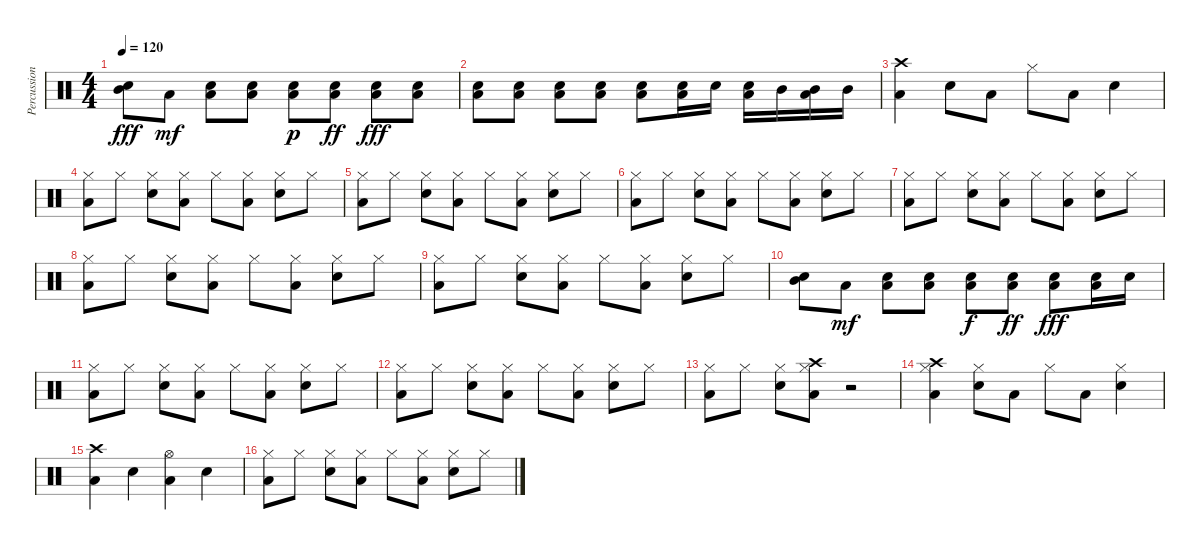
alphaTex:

\track ("Percussion" "Percussion") {instrument percussion}
\staff {score}
\articulation defaults
\ts (4 4)
\tempo 120
\clef neutral
\ks c
("Electric Snare (hit)" "Mid Tom (hit)").8{dy fff} "Low Tom (hit)".8{dy mf} ("Electric Snare (hit)" "Low Tom (hit)").8 ("Electric Snare (hit)" "Low Tom (hit)").8 ("Electric Snare (hit)" "Low Tom (hit)").8{dy p} ("Electric Snare (hit)" "Low Tom (hit)").8{dy ff} ("Electric Snare (hit)" "Low Tom (hit)").8{dy fff} ("Electric Snare (hit)" "Low Tom (hit)").8 |
("Electric Snare (hit)" "Low Tom (hit)").8 ("Electric Snare (hit)" "Low Tom (hit)").8 ("Electric Snare (hit)" "Low Tom (hit)").8 ("Electric Snare (hit)" "Low Tom (hit)").8 ("Electric Snare (hit)" "Low Tom (hit)").8 ("Electric Snare (hit)" "Low Tom (hit)").16 "Electric Snare (hit)".16 ("Electric Snare (hit)" "Low Tom (hit)").16 "Mid Tom (hit)".16 ("Mid Tom (hit)" "Low Tom (hit)").16 "Mid Tom (hit)".16 |
("Crash high (hit)" "Low Tom (hit)").4 "Electric Snare (hit)".8 "Low Tom (hit)".8 "Hi-Hat (closed)".8 "Low Tom (hit)".8 "Electric Snare (hit)".4 |
("Hi-Hat (closed)" "Low Tom (hit)").8 "Hi-Hat (closed)".8 ("Hi-Hat (closed)" "Electric Snare (hit)").8 ("Hi-Hat (closed)" "Low Tom (hit)").8 "Hi-Hat (closed)".8 ("Hi-Hat (closed)" "Low Tom (hit)").8 ("Hi-Hat (closed)" "Electric Snare (hit)").8 "Hi-Hat (closed)".8 |
("Hi-Hat (closed)" "Low Tom (hit)").8 "Hi-Hat (closed)".8 ("Hi-Hat (closed)" "Electric Snare (hit)").8 ("Hi-Hat (closed)" "Low Tom (hit)").8 "Hi-Hat (closed)".8 ("Hi-Hat (closed)" "Low Tom (hit)").8 ("Hi-Hat (closed)" "Electric Snare (hit)").8 "Hi-Hat (closed)".8 |
("Hi-Hat (closed)" "Low Tom (hit)").8 "Hi-Hat (closed)".8 ("Hi-Hat (closed)" "Electric Snare (hit)").8 ("Hi-Hat (closed)" "Low Tom (hit)").8 "Hi-Hat (closed)".8 ("Hi-Hat (closed)" "Low Tom (hit)").8 ("Hi-Hat (closed)" "Electric Snare (hit)").8 "Hi-Hat (closed)".8 |
("Hi-Hat (closed)" "Low Tom (hit)").8 "Hi-Hat (closed)".8 ("Hi-Hat (closed)" "Electric Snare (hit)").8 ("Hi-Hat (closed)" "Low Tom (hit)").8 "Hi-Hat (closed)".8 ("Hi-Hat (closed)" "Low Tom (hit)").8 ("Hi-Hat (closed)" "Electric Snare (hit)").8 "Hi-Hat (closed)".8 |
("Hi-Hat (closed)" "Low Tom (hit)").8 "Hi-Hat (closed)".8 ("Hi-Hat (closed)" "Electric Snare (hit)").8 ("Hi-Hat (closed)" "Low Tom (hit)").8 "Hi-Hat (closed)".8 ("Hi-Hat (closed)" "Low Tom (hit)").8 ("Hi-Hat (closed)" "Electric Snare (hit)").8 "Hi-Hat (closed)".8 |
("Hi-Hat (closed)" "Low Tom (hit)").8 "Hi-Hat (closed)".8 ("Hi-Hat (closed)" "Electric Snare (hit)").8 ("Hi-Hat (closed)" "Low Tom (hit)").8 "Hi-Hat (closed)".8 ("Hi-Hat (closed)" "Low Tom (hit)").8 ("Hi-Hat (closed)" "Electric Snare (hit)").8 "Hi-Hat (closed)".8 |
("Electric Snare (hit)" "Mid Tom (hit)").8 "Low Tom (hit)".8{dy mf} ("Electric Snare (hit)" "Low Tom (hit)").8 ("Electric Snare (hit)" "Low Tom (hit)").8 ("Electric Snare (hit)" "Low Tom (hit)").8{dy f} ("Electric Snare (hit)" "Low Tom (hit)").8{dy ff} ("Electric Snare (hit)" "Low Tom (hit)").8{dy fff} ("Electric Snare (hit)" "Low Tom (hit)").16 "Electric Snare (hit)".16 |
("Hi-Hat (closed)" "Low Tom (hit)").8 "Hi-Hat (closed)".8 ("Hi-Hat (closed)" "Electric Snare (hit)").8 ("Hi-Hat (closed)" "Low Tom (hit)").8 "Hi-Hat (closed)".8 ("Hi-Hat (closed)" "Low Tom (hit)").8 ("Hi-Hat (closed)" "Electric Snare (hit)").8 "Hi-Hat (closed)".8 |
("Hi-Hat (closed)" "Low Tom (hit)").8 "Hi-Hat (closed)".8 ("Hi-Hat (closed)" "Electric Snare (hit)").8 ("Hi-Hat (closed)" "Low Tom (hit)").8 "Hi-Hat (closed)".8 ("Hi-Hat (closed)" "Low Tom (hit)").8 ("Hi-Hat (closed)" "Electric Snare (hit)").8 "Hi-Hat (closed)".8 |
("Hi-Hat (closed)" "Low Tom (hit)").8 "Hi-Hat (closed)".8 ("Hi-Hat (closed)" "Electric Snare (hit)").8 ("Crash high (hit)" "Hi-Hat (closed)" "Low Tom (hit)").8 r.2 |
("Crash high (hit)" "Hi-Hat (closed)" "Low Tom (hit)").4 ("Hi-Hat (closed)" "Electric Snare (hit)").8 "Low Tom (hit)".8 "Hi-Hat (closed)".8 "Low Tom (hit)".8 ("Hi-Hat (closed)" "Electric Snare (hit)").4 |
("Crash high (hit)" "Low Tom (hit)").4 "Electric Snare (hit)".4 ("Hi-Hat (open)" "Low Tom (hit)").4 "Electric Snare (hit)".4 |
("Hi-Hat (closed)" "Low Tom (hit)").8 "Hi-Hat (closed)".8 ("Hi-Hat (closed)" "Electric Snare (hit)").8 ("Hi-Hat (closed)" "Low Tom (hit)").8 "Hi-Hat (closed)".8 ("Hi-Hat (closed)" "Low Tom (hit)").8 ("Hi-Hat (closed)" "Electric Snare (hit)").8 "Hi-Hat (closed)".8
